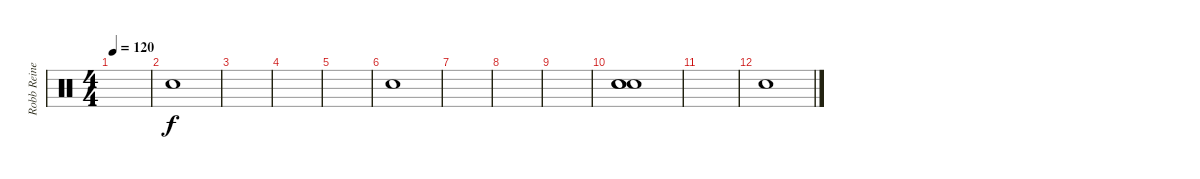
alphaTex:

\track ("Robb Reiner" "Robb Reine") {instrument percussion}
\staff {score}
\articulation defaults
\ts (4 4)
\tempo 120
\clef neutral
\ks c
|
"Snare (hit)".1 |
|
|
|
"Snare (hit)".1 |
|
|
|
("Snare (hit)" "Snare (hit)" "Snare (hit)").1 |
|
"Snare (hit)".1
